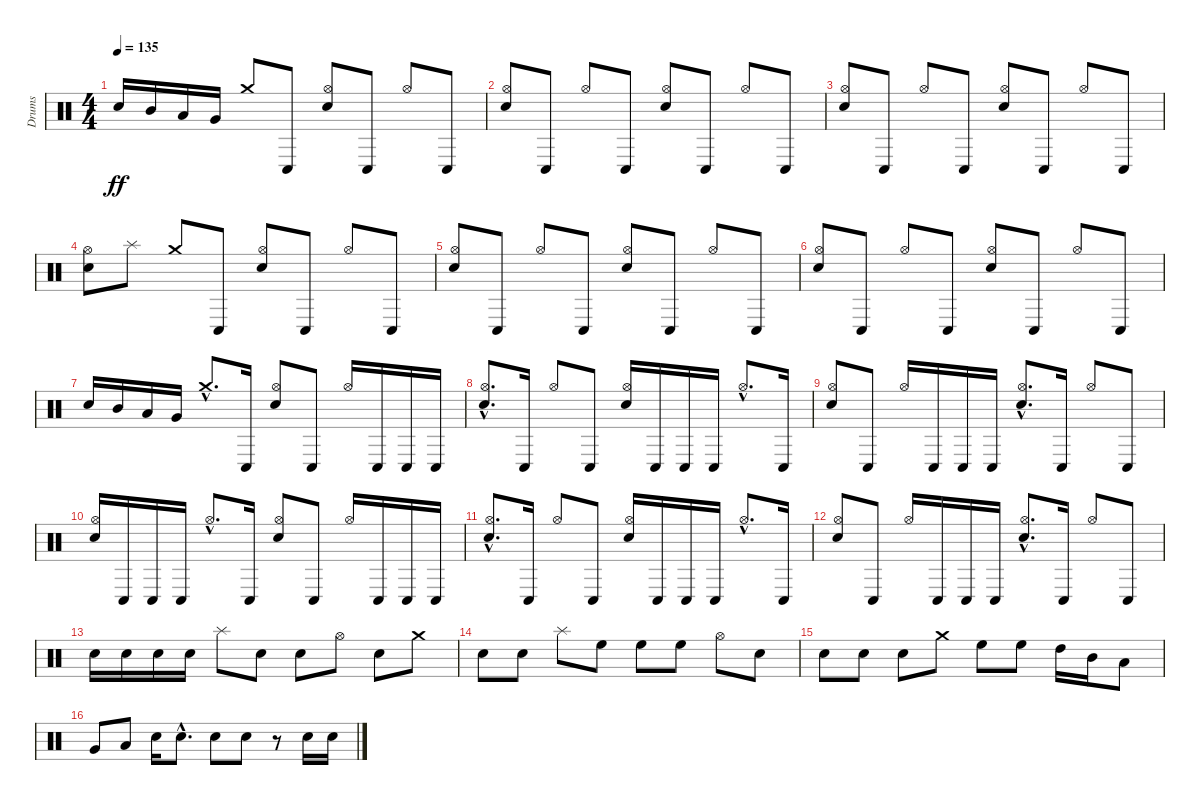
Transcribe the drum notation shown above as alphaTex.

\track ("Drums" "Drums") {instrument percussion}
\staff {score}
\articulation defaults
\ts (4 4)
\tempo 135
\clef neutral
\ks c "Electric Snare (hit)".16{dy ff} "Mid Tom (hit)".16 "Low Tom (hit)".16 "Very Low Tom (hit)".16 "Crash medium (hit)".8 "Conga low (hit)".8
("Electric Snare (hit)" "Hi-Hat (open)").8 "Conga low (hit)".8 "Hi-Hat (open)".8 "Conga low (hit)".8 |
("Electric Snare (hit)" "Hi-Hat (open)").8 "Conga low (hit)".8 "Hi-Hat (open)".8 "Conga low (hit)".8 ("Electric Snare (hit)" "Hi-Hat (open)").8 "Conga low (hit)".8 "Hi-Hat (open)".8 "Conga low (hit)".8 |
("Electric Snare (hit)" "Hi-Hat (open)").8 "Conga low (hit)".8 "Hi-Hat (open)".8 "Conga low (hit)".8 ("Electric Snare (hit)" "Hi-Hat (open)").8 "Conga low (hit)".8 "Hi-Hat (open)".8 "Conga low (hit)".8 |
("Electric Snare (hit)" "Hi-Hat (open)").8 "Splash (hit)".8 "Crash medium (hit)".8 "Conga low (hit)".8 ("Electric Snare (hit)" "Hi-Hat (open)").8 "Conga low (hit)".8 "Hi-Hat (open)".8 "Conga low (hit)".8 |
("Electric Snare (hit)" "Hi-Hat (open)").8 "Conga low (hit)".8 "Hi-Hat (open)".8 "Conga low (hit)".8 ("Electric Snare (hit)" "Hi-Hat (open)").8 "Conga low (hit)".8 "Hi-Hat (open)".8 "Conga low (hit)".8 |
("Electric Snare (hit)" "Hi-Hat (open)").8 "Conga low (hit)".8 "Hi-Hat (open)".8 "Conga low (hit)".8 ("Electric Snare (hit)" "Hi-Hat (open)").8 "Conga low (hit)".8 "Hi-Hat (open)".8 "Conga low (hit)".8 |
"Electric Snare (hit)".16 "Mid Tom (hit)".16 "Low Tom (hit)".16 "Very Low Tom (hit)".16 "Crash medium (hit)"{hac}.8{d} "Conga low (hit)".16 ("Electric Snare (hit)" "Hi-Hat (open)").8 "Conga low (hit)".8 "Hi-Hat (open)".16 "Conga low (hit)".16 "Conga low (hit)".16 "Conga low (hit)".16 |
("Electric Snare (hit)"{hac} "Hi-Hat (open)"{hac}).8{d} "Conga low (hit)".16 "Hi-Hat (open)".8 "Conga low (hit)".8 ("Electric Snare (hit)" "Hi-Hat (open)").16 "Conga low (hit)".16 "Conga low (hit)".16 "Conga low (hit)".16 "Hi-Hat (open)"{hac}.8{d} "Conga low (hit)".16 |
("Electric Snare (hit)" "Hi-Hat (open)").8 "Conga low (hit)".8 "Hi-Hat (open)".16 "Conga low (hit)".16 "Conga low (hit)".16 "Conga low (hit)".16 ("Electric Snare (hit)"{hac} "Hi-Hat (open)"{hac}).8{d} "Conga low (hit)".16 "Hi-Hat (open)".8 "Conga low (hit)".8 |
("Electric Snare (hit)" "Hi-Hat (open)").16 "Conga low (hit)".16 "Conga low (hit)".16 "Conga low (hit)".16 "Hi-Hat (open)"{hac}.8{d} "Conga low (hit)".16 ("Electric Snare (hit)" "Hi-Hat (open)").8 "Conga low (hit)".8 "Hi-Hat (open)".16 "Conga low (hit)".16 "Conga low (hit)".16 "Conga low (hit)".16 |
("Electric Snare (hit)"{hac} "Hi-Hat (open)"{hac}).8{d} "Conga low (hit)".16 "Hi-Hat (open)".8 "Conga low (hit)".8 ("Electric Snare (hit)" "Hi-Hat (open)").16 "Conga low (hit)".16 "Conga low (hit)".16 "Conga low (hit)".16 "Hi-Hat (open)"{hac}.8{d} "Conga low (hit)".16 |
("Electric Snare (hit)" "Hi-Hat (open)").8 "Conga low (hit)".8 "Hi-Hat (open)".16 "Conga low (hit)".16 "Conga low (hit)".16 "Conga low (hit)".16 ("Electric Snare (hit)"{hac} "Hi-Hat (open)"{hac}).8{d} "Conga low (hit)".16 "Hi-Hat (open)".8 "Conga low (hit)".8 |
"Electric Snare (hit)".16 "Electric Snare (hit)".16 "Electric Snare (hit)".16 "Electric Snare (hit)".16 "Splash (hit)".8 "Electric Snare (hit)".8 "Electric Snare (hit)".8 "Hi-Hat (open)".8 "Electric Snare (hit)".8 "Crash medium (hit)".8 |
"Electric Snare (hit)".8 "Electric Snare (hit)".8 "Splash (hit)".8 "High Floor Tom (hit)".8 "High Floor Tom (hit)".8 "High Floor Tom (hit)".8 "Hi-Hat (open)".8 "Electric Snare (hit)".8 |
"Electric Snare (hit)".8 "Electric Snare (hit)".8 "Electric Snare (hit)".8 "Crash medium (hit)".8 "High Floor Tom (hit)".8 "High Floor Tom (hit)".8 "High Tom (hit)".16 "Mid Tom (hit)".16 "Low Tom (hit)".8 |
"Very Low Tom (hit)".8 "Low Floor Tom (hit)".8 "Electric Snare (hit)".16 "Electric Snare (hit)"{hac}.8{d} "Electric Snare (hit)".8 "Electric Snare (hit)".8 r.8 "Electric Snare (hit)".16 "Electric Snare (hit)".16
